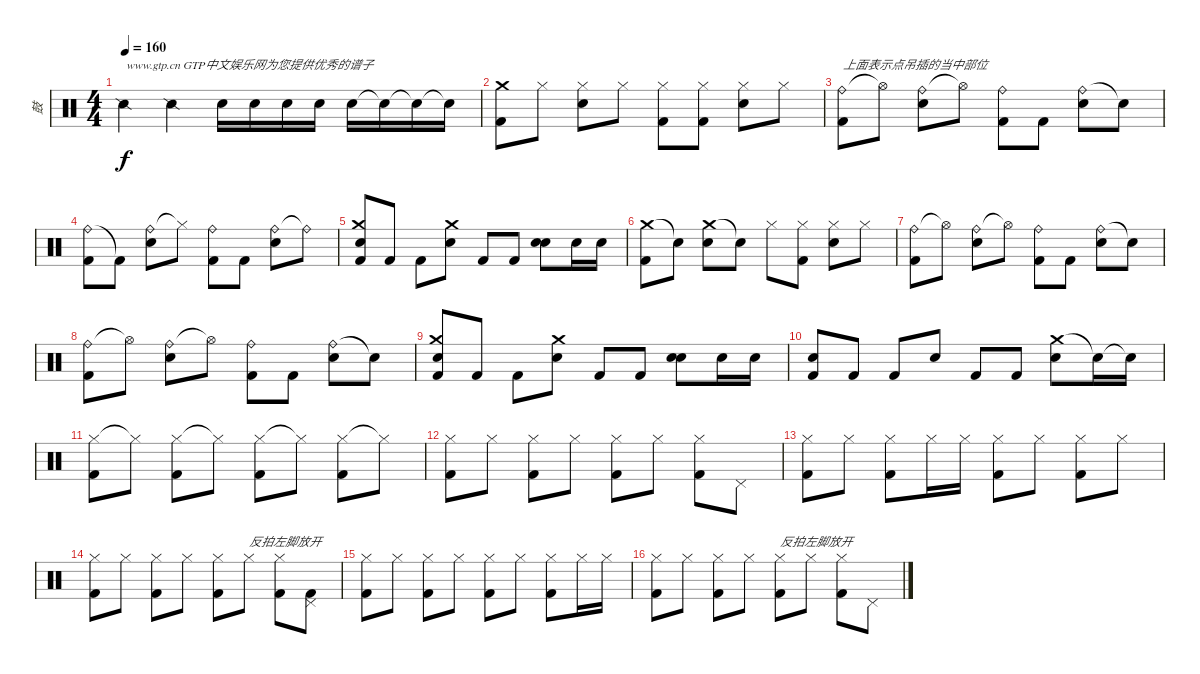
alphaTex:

\track ("鼓" "鼓") {instrument percussion}
\staff {score}
\articulation defaults
\ts (4 4)
\tempo 160
\clef neutral
\ks c "Snare (side stick) 2".4{txt "www.gtp.cn GTP中文娱乐网为您提供优秀的谱子" dy f} "Snare (side stick) 2".4 "Electric Snare (hit)".16 "Electric Snare (hit)".16 "Electric Snare (hit)".16 "Electric Snare (hit)".16 "Electric Snare (hit)".16 "Snare (hit) 2"{t}.16 "Snare (hit) 2"{t}.16 "Snare (hit) 2"{t}.16
|
("Crash medium (hit)" "Kick (hit) 2").8 "Hi-Hat (closed)".8 ("Hi-Hat (closed)" "Electric Snare (hit)").8 "Hi-Hat (closed)".8 ("Hi-Hat (closed)" "Kick (hit) 2").8 ("Hi-Hat (closed)" "Kick (hit) 2").8 ("Hi-Hat (closed)" "Electric Snare (hit)").8 "Hi-Hat (closed)".8 |
("Ride (bell)" "Kick (hit) 2").8{txt "上面表示点吊插的当中部位"} "Hi-Hat (open)"{t}.8 ("Ride (bell)" "Electric Snare (hit)").8 "Hi-Hat (open)"{t}.8 ("Ride (bell)" "Kick (hit) 2").8 "Kick (hit) 2".8 ("Ride (bell)" "Electric Snare (hit)").8 "Snare (hit)"{t}.8 |
("Ride (bell)" "Kick (hit) 2").8 "Kick (hit) 2"{t}.8 ("Ride (bell)" "Electric Snare (hit)").8 "Hi-Hat (closed)"{t}.8 ("Ride (bell)" "Kick (hit) 2").8 "Kick (hit) 2".8 ("Ride (bell)" "Electric Snare (hit)").8 "Ride (bell)"{t}.8 |
("Crash medium (hit)" "Electric Snare (hit)" "Kick (hit) 2").8 "Kick (hit) 2".8 "Kick (hit) 2".8 ("Crash medium (hit)" "Electric Snare (hit)").8 "Kick (hit) 2".8 "Kick (hit) 2".8 ("Electric Snare (hit)" "Electric Snare (hit)").8 "Electric Snare (hit)".16 "Electric Snare (hit)".16 |
("Crash medium (hit)" "Kick (hit) 2").8 "Snare (hit)"{t}.8 ("Crash medium (hit)" "Electric Snare (hit)").8 "Snare (hit)"{t}.8 "Hi-Hat (closed)".8 ("Hi-Hat (closed)" "Kick (hit) 2").8 ("Hi-Hat (closed)" "Electric Snare (hit)").8 "Hi-Hat (closed)".8 |
("Ride (bell)" "Kick (hit) 2").8 "Hi-Hat (open)"{t}.8 ("Ride (bell)" "Electric Snare (hit)").8 "Hi-Hat (open)"{t}.8 ("Ride (bell)" "Kick (hit) 2").8 "Kick (hit) 2".8 ("Ride (bell)" "Electric Snare (hit)").8 "Snare (hit)"{t}.8 |
("Ride (bell)" "Kick (hit) 2").8 "Hi-Hat (open)"{t}.8 ("Ride (bell)" "Electric Snare (hit)").8 "Hi-Hat (open)"{t}.8 ("Ride (bell)" "Kick (hit) 2").8 "Kick (hit) 2".8 ("Ride (bell)" "Electric Snare (hit)").8 "Snare (hit)"{t}.8 |
("Crash medium (hit)" "Electric Snare (hit)" "Kick (hit) 2").8 "Kick (hit) 2".8 "Kick (hit) 2".8 ("Crash medium (hit)" "Electric Snare (hit)").8 "Kick (hit) 2".8 "Kick (hit) 2".8 ("Electric Snare (hit)" "Electric Snare (hit)").8 "Electric Snare (hit)".16 "Electric Snare (hit)".16 |
("Electric Snare (hit)" "Kick (hit) 2").8 "Kick (hit) 2".8 "Kick (hit) 2".8 "Electric Snare (hit)".8 "Kick (hit) 2".8 "Kick (hit) 2".8 ("Crash medium (hit)" "Electric Snare (hit)").8 "Snare (hit) 2"{t}.16 "Snare (hit) 2"{t}.16 |
("Hi-Hat (closed)" "Kick (hit) 2").8 "Hi-Hat (closed)"{t}.8 ("Hi-Hat (closed)" "Kick (hit) 2").8 "Hi-Hat (closed)"{t}.8 ("Hi-Hat (closed)" "Kick (hit) 2").8 "Hi-Hat (closed)"{t}.8 ("Hi-Hat (closed)" "Kick (hit) 2").8 "Hi-Hat (closed)"{t}.8 |
("Hi-Hat (closed)" "Kick (hit) 2").8 "Hi-Hat (closed)".8 ("Hi-Hat (closed)" "Kick (hit) 2").8 "Hi-Hat (closed)".8 ("Hi-Hat (closed)" "Kick (hit) 2").8 "Hi-Hat (closed)".8 ("Hi-Hat (closed)" "Kick (hit) 2").8 "Pedal Hi-Hat (hit)".8 |
("Hi-Hat (closed)" "Kick (hit) 2").8 "Hi-Hat (closed)".8 ("Hi-Hat (closed)" "Kick (hit) 2").8 "Hi-Hat (closed)".16 "Hi-Hat (closed)".16 ("Hi-Hat (closed)" "Kick (hit) 2").8 "Hi-Hat (closed)".8 ("Hi-Hat (closed)" "Kick (hit) 2").8 "Hi-Hat (closed)".8 |
("Hi-Hat (closed)" "Kick (hit) 2").8 "Hi-Hat (closed)".8 ("Hi-Hat (closed)" "Kick (hit) 2").8 "Hi-Hat (closed)".8 ("Hi-Hat (closed)" "Kick (hit) 2").8 "Hi-Hat (closed)".8{txt "反拍左脚放开"} ("Hi-Hat (closed)" "Kick (hit) 2").8 ("Pedal Hi-Hat (hit)" "Kick (hit) 2").8 |
("Hi-Hat (closed)" "Kick (hit) 2").8 "Hi-Hat (closed)".8 ("Hi-Hat (closed)" "Kick (hit) 2").8 "Hi-Hat (closed)".8 ("Hi-Hat (closed)" "Kick (hit) 2").8 "Hi-Hat (closed)".8 ("Hi-Hat (closed)" "Kick (hit) 2").8 "Hi-Hat (closed)".16 "Hi-Hat (closed)".16 |
("Hi-Hat (closed)" "Kick (hit) 2").8 "Hi-Hat (closed)".8 ("Hi-Hat (closed)" "Kick (hit) 2").8 "Hi-Hat (closed)".8 ("Hi-Hat (closed)" "Kick (hit) 2").8{txt "反拍左脚放开"} "Hi-Hat (closed)".8 ("Hi-Hat (closed)" "Kick (hit) 2").8 "Pedal Hi-Hat (hit)".8
